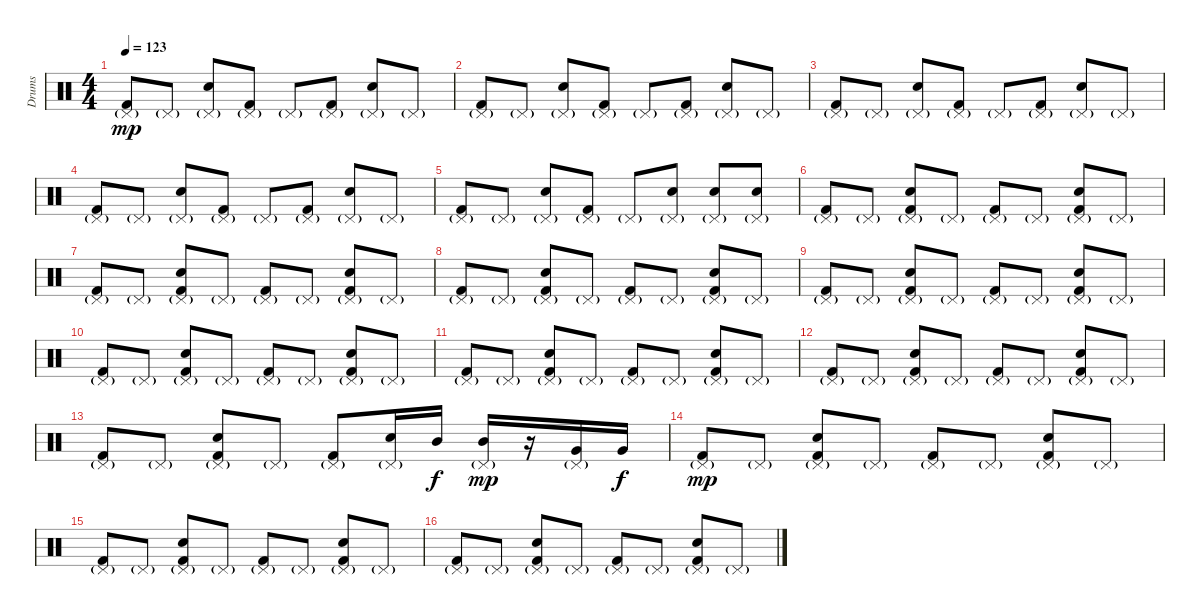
\track ("Drums" "Drums") {instrument percussion}
\staff {score}
\articulation defaults
\ts (4 4)
\tempo 123
\clef neutral
\ks c
("Pedal Hi-Hat (hit)"{g} "Kick (hit) 2").8{dy mp} "Pedal Hi-Hat (hit)"{g}.8 ("Pedal Hi-Hat (hit)"{g} "Snare (hit) 2").8 ("Pedal Hi-Hat (hit)"{g} "Kick (hit) 2").8 "Pedal Hi-Hat (hit)"{g}.8 ("Pedal Hi-Hat (hit)"{g} "Kick (hit) 2").8 ("Pedal Hi-Hat (hit)"{g} "Snare (hit) 2").8 "Pedal Hi-Hat (hit)"{g}.8 |
("Pedal Hi-Hat (hit)"{g} "Kick (hit) 2").8 "Pedal Hi-Hat (hit)"{g}.8 ("Pedal Hi-Hat (hit)"{g} "Snare (hit) 2").8 ("Pedal Hi-Hat (hit)"{g} "Kick (hit) 2").8 "Pedal Hi-Hat (hit)"{g}.8 ("Pedal Hi-Hat (hit)"{g} "Kick (hit) 2").8 ("Pedal Hi-Hat (hit)"{g} "Snare (hit) 2").8 "Pedal Hi-Hat (hit)"{g}.8 |
("Pedal Hi-Hat (hit)"{g} "Kick (hit) 2").8 "Pedal Hi-Hat (hit)"{g}.8 ("Pedal Hi-Hat (hit)"{g} "Snare (hit) 2").8 ("Pedal Hi-Hat (hit)"{g} "Kick (hit) 2").8 "Pedal Hi-Hat (hit)"{g}.8 ("Pedal Hi-Hat (hit)"{g} "Kick (hit) 2").8 ("Pedal Hi-Hat (hit)"{g} "Snare (hit) 2").8 "Pedal Hi-Hat (hit)"{g}.8 |
("Pedal Hi-Hat (hit)"{g} "Kick (hit) 2").8 "Pedal Hi-Hat (hit)"{g}.8 ("Pedal Hi-Hat (hit)"{g} "Snare (hit) 2").8 ("Pedal Hi-Hat (hit)"{g} "Kick (hit) 2").8 "Pedal Hi-Hat (hit)"{g}.8 ("Pedal Hi-Hat (hit)"{g} "Kick (hit) 2").8 ("Pedal Hi-Hat (hit)"{g} "Snare (hit) 2").8 "Pedal Hi-Hat (hit)"{g}.8 |
("Pedal Hi-Hat (hit)"{g} "Kick (hit) 2").8 "Pedal Hi-Hat (hit)"{g}.8 ("Pedal Hi-Hat (hit)"{g} "Snare (hit) 2").8 ("Pedal Hi-Hat (hit)"{g} "Kick (hit) 2").8 "Pedal Hi-Hat (hit)"{g}.8 ("Pedal Hi-Hat (hit)"{g} "Snare (hit) 2").8 ("Pedal Hi-Hat (hit)"{g} "Snare (hit) 2").8 ("Pedal Hi-Hat (hit)"{g} "Snare (hit) 2").8 |
("Pedal Hi-Hat (hit)"{g} "Kick (hit) 2").8 "Pedal Hi-Hat (hit)"{g}.8 ("Pedal Hi-Hat (hit)"{g} "Snare (hit) 2" "Kick (hit) 2").8 "Pedal Hi-Hat (hit)"{g}.8 ("Pedal Hi-Hat (hit)"{g} "Kick (hit) 2").8 "Pedal Hi-Hat (hit)"{g}.8 ("Pedal Hi-Hat (hit)"{g} "Snare (hit) 2" "Kick (hit) 2").8 "Pedal Hi-Hat (hit)"{g}.8 |
("Pedal Hi-Hat (hit)"{g} "Kick (hit) 2").8 "Pedal Hi-Hat (hit)"{g}.8 ("Pedal Hi-Hat (hit)"{g} "Snare (hit) 2" "Kick (hit) 2").8 "Pedal Hi-Hat (hit)"{g}.8 ("Pedal Hi-Hat (hit)"{g} "Kick (hit) 2").8 "Pedal Hi-Hat (hit)"{g}.8 ("Pedal Hi-Hat (hit)"{g} "Snare (hit) 2" "Kick (hit) 2").8 "Pedal Hi-Hat (hit)"{g}.8 |
("Pedal Hi-Hat (hit)"{g} "Kick (hit) 2").8 "Pedal Hi-Hat (hit)"{g}.8 ("Pedal Hi-Hat (hit)"{g} "Snare (hit) 2" "Kick (hit) 2").8 "Pedal Hi-Hat (hit)"{g}.8 ("Pedal Hi-Hat (hit)"{g} "Kick (hit) 2").8 "Pedal Hi-Hat (hit)"{g}.8 ("Pedal Hi-Hat (hit)"{g} "Snare (hit) 2" "Kick (hit) 2").8 "Pedal Hi-Hat (hit)"{g}.8 |
("Pedal Hi-Hat (hit)"{g} "Kick (hit) 2").8 "Pedal Hi-Hat (hit)"{g}.8 ("Pedal Hi-Hat (hit)"{g} "Snare (hit) 2" "Kick (hit) 2").8 "Pedal Hi-Hat (hit)"{g}.8 ("Pedal Hi-Hat (hit)"{g} "Kick (hit) 2").8 "Pedal Hi-Hat (hit)"{g}.8 ("Pedal Hi-Hat (hit)"{g} "Snare (hit) 2" "Kick (hit) 2").8 "Pedal Hi-Hat (hit)"{g}.8 |
("Pedal Hi-Hat (hit)"{g} "Kick (hit) 2").8 "Pedal Hi-Hat (hit)"{g}.8 ("Pedal Hi-Hat (hit)"{g} "Snare (hit) 2" "Kick (hit) 2").8 "Pedal Hi-Hat (hit)"{g}.8 ("Pedal Hi-Hat (hit)"{g} "Kick (hit) 2").8 "Pedal Hi-Hat (hit)"{g}.8 ("Pedal Hi-Hat (hit)"{g} "Snare (hit) 2" "Kick (hit) 2").8 "Pedal Hi-Hat (hit)"{g}.8 |
("Pedal Hi-Hat (hit)"{g} "Kick (hit) 2").8 "Pedal Hi-Hat (hit)"{g}.8 ("Pedal Hi-Hat (hit)"{g} "Snare (hit) 2" "Kick (hit) 2").8 "Pedal Hi-Hat (hit)"{g}.8 ("Pedal Hi-Hat (hit)"{g} "Kick (hit) 2").8 "Pedal Hi-Hat (hit)"{g}.8 ("Pedal Hi-Hat (hit)"{g} "Snare (hit) 2" "Kick (hit) 2").8 "Pedal Hi-Hat (hit)"{g}.8 |
("Pedal Hi-Hat (hit)"{g} "Kick (hit) 2").8 "Pedal Hi-Hat (hit)"{g}.8 ("Pedal Hi-Hat (hit)"{g} "Snare (hit) 2" "Kick (hit) 2").8 "Pedal Hi-Hat (hit)"{g}.8 ("Pedal Hi-Hat (hit)"{g} "Kick (hit) 2").8 "Pedal Hi-Hat (hit)"{g}.8 ("Pedal Hi-Hat (hit)"{g} "Snare (hit) 2" "Kick (hit) 2").8 "Pedal Hi-Hat (hit)"{g}.8 |
("Pedal Hi-Hat (hit)"{g} "Kick (hit) 2").8 "Pedal Hi-Hat (hit)"{g}.8 ("Pedal Hi-Hat (hit)"{g} "Snare (hit) 2" "Kick (hit) 2").8 "Pedal Hi-Hat (hit)"{g}.8 ("Pedal Hi-Hat (hit)"{g} "Kick (hit) 2").8 ("Pedal Hi-Hat (hit)"{g} "Snare (hit) 2").16 "Mid Tom (hit)".16{dy f} ("Pedal Hi-Hat (hit)"{g} "Mid Tom (hit)").16{dy mp} r.16 ("Pedal Hi-Hat (hit)"{g} "Very Low Tom (hit)").16 "Very Low Tom (hit)".16{dy f} |
("Pedal Hi-Hat (hit)"{g} "Kick (hit) 2").8{dy mp} "Pedal Hi-Hat (hit)"{g}.8 ("Pedal Hi-Hat (hit)"{g} "Snare (hit) 2" "Kick (hit) 2").8 "Pedal Hi-Hat (hit)"{g}.8 ("Pedal Hi-Hat (hit)"{g} "Kick (hit) 2").8 "Pedal Hi-Hat (hit)"{g}.8 ("Pedal Hi-Hat (hit)"{g} "Snare (hit) 2" "Kick (hit) 2").8 "Pedal Hi-Hat (hit)"{g}.8 |
("Pedal Hi-Hat (hit)"{g} "Kick (hit) 2").8 "Pedal Hi-Hat (hit)"{g}.8 ("Pedal Hi-Hat (hit)"{g} "Snare (hit) 2" "Kick (hit) 2").8 "Pedal Hi-Hat (hit)"{g}.8 ("Pedal Hi-Hat (hit)"{g} "Kick (hit) 2").8 "Pedal Hi-Hat (hit)"{g}.8 ("Pedal Hi-Hat (hit)"{g} "Snare (hit) 2" "Kick (hit) 2").8 "Pedal Hi-Hat (hit)"{g}.8 |
("Pedal Hi-Hat (hit)"{g} "Kick (hit) 2").8 "Pedal Hi-Hat (hit)"{g}.8 ("Pedal Hi-Hat (hit)"{g} "Snare (hit) 2" "Kick (hit) 2").8 "Pedal Hi-Hat (hit)"{g}.8 ("Pedal Hi-Hat (hit)"{g} "Kick (hit) 2").8 "Pedal Hi-Hat (hit)"{g}.8 ("Pedal Hi-Hat (hit)"{g} "Snare (hit) 2" "Kick (hit) 2").8 "Pedal Hi-Hat (hit)"{g}.8
